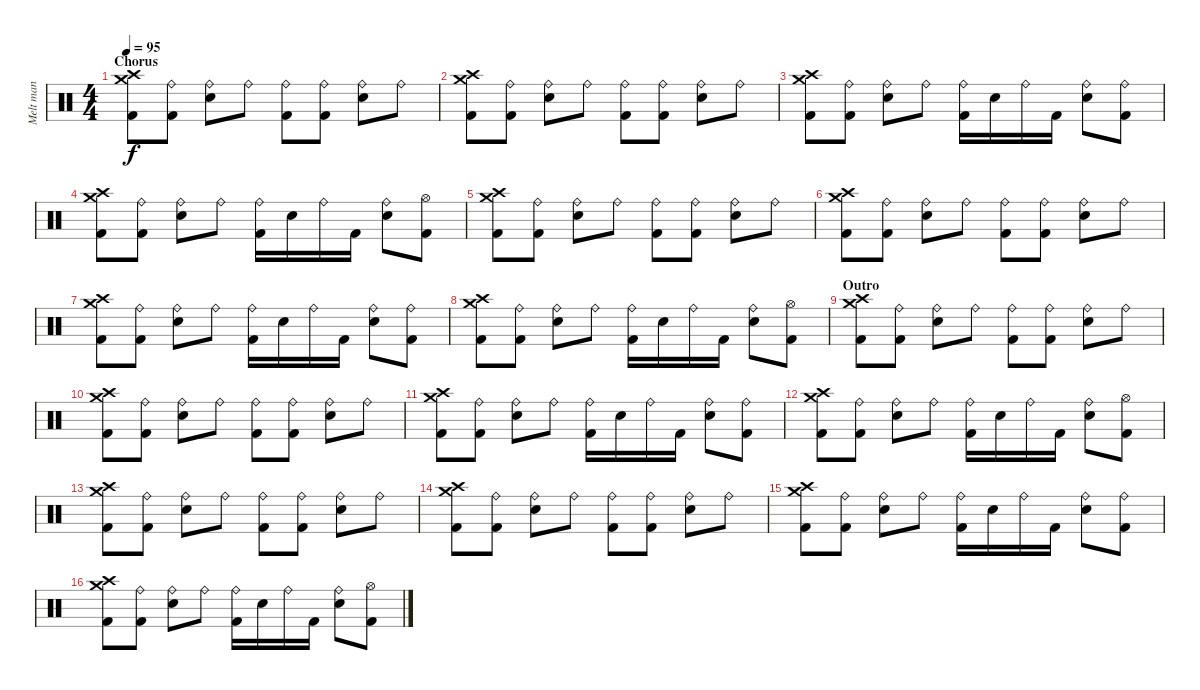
\track ("Melt man" "Melt man") {instrument percussion}
\staff {score}
\articulation defaults
\ts (4 4)
\section ("" "Chorus")
\tempo 95
\clef neutral
\ks c
("Crash medium (hit)" "Crash high (hit)" "Kick (hit) 2").8{dy f} ("Ride (bell)" "Kick (hit) 2").8 ("Ride (bell)" "Snare (hit) 2").8 "Ride (bell)".8 ("Ride (bell)" "Kick (hit) 2").8 ("Ride (bell)" "Kick (hit) 2").8 ("Ride (bell)" "Snare (hit) 2").8 "Ride (bell)".8 |
("Crash medium (hit)" "Crash high (hit)" "Kick (hit) 2").8 ("Ride (bell)" "Kick (hit) 2").8 ("Ride (bell)" "Snare (hit) 2").8 "Ride (bell)".8 ("Ride (bell)" "Kick (hit) 2").8 ("Ride (bell)" "Kick (hit) 2").8 ("Ride (bell)" "Snare (hit) 2").8 "Ride (bell)".8 |
("Crash medium (hit)" "Crash high (hit)" "Kick (hit) 2").8 ("Ride (bell)" "Kick (hit) 2").8 ("Ride (bell)" "Snare (hit) 2").8 "Ride (bell)".8 ("Ride (bell)" "Kick (hit) 2").16 "Snare (hit) 2".16 "Ride (bell)".16 "Kick (hit) 2".16 ("Ride (bell)" "Snare (hit) 2").8 ("Ride (bell)" "Kick (hit) 2").8 |
("Crash medium (hit)" "Crash high (hit)" "Kick (hit) 2").8 ("Ride (bell)" "Kick (hit) 2").8 ("Ride (bell)" "Snare (hit) 2").8 "Ride (bell)".8 ("Ride (bell)" "Kick (hit) 2").16 "Snare (hit) 2".16 "Ride (bell)".16 "Kick (hit) 2".16 ("Ride (bell)" "Snare (hit) 2").8 ("Hi-Hat (open)" "Kick (hit) 2").8 |
("Crash medium (hit)" "Crash high (hit)" "Kick (hit) 2").8 ("Ride (bell)" "Kick (hit) 2").8 ("Ride (bell)" "Snare (hit) 2").8 "Ride (bell)".8 ("Ride (bell)" "Kick (hit) 2").8 ("Ride (bell)" "Kick (hit) 2").8 ("Ride (bell)" "Snare (hit) 2").8 "Ride (bell)".8 |
("Crash medium (hit)" "Crash high (hit)" "Kick (hit) 2").8 ("Ride (bell)" "Kick (hit) 2").8 ("Ride (bell)" "Snare (hit) 2").8 "Ride (bell)".8 ("Ride (bell)" "Kick (hit) 2").8 ("Ride (bell)" "Kick (hit) 2").8 ("Ride (bell)" "Snare (hit) 2").8 "Ride (bell)".8 |
("Crash medium (hit)" "Crash high (hit)" "Kick (hit) 2").8 ("Ride (bell)" "Kick (hit) 2").8 ("Ride (bell)" "Snare (hit) 2").8 "Ride (bell)".8 ("Ride (bell)" "Kick (hit) 2").16 "Snare (hit) 2".16 "Ride (bell)".16 "Kick (hit) 2".16 ("Ride (bell)" "Snare (hit) 2").8 ("Ride (bell)" "Kick (hit) 2").8 |
("Crash medium (hit)" "Crash high (hit)" "Kick (hit) 2").8 ("Ride (bell)" "Kick (hit) 2").8 ("Ride (bell)" "Snare (hit) 2").8 "Ride (bell)".8 ("Ride (bell)" "Kick (hit) 2").16 "Snare (hit) 2".16 "Ride (bell)".16 "Kick (hit) 2".16 ("Ride (bell)" "Snare (hit) 2").8 ("Hi-Hat (open)" "Kick (hit) 2").8 |
\section ("" "Outro")
("Crash medium (hit)" "Crash high (hit)" "Kick (hit) 2").8 ("Ride (bell)" "Kick (hit) 2").8 ("Ride (bell)" "Snare (hit) 2").8 "Ride (bell)".8 ("Ride (bell)" "Kick (hit) 2").8 ("Ride (bell)" "Kick (hit) 2").8 ("Ride (bell)" "Snare (hit) 2").8 "Ride (bell)".8 |
("Crash medium (hit)" "Crash high (hit)" "Kick (hit) 2").8 ("Ride (bell)" "Kick (hit) 2").8 ("Ride (bell)" "Snare (hit) 2").8 "Ride (bell)".8 ("Ride (bell)" "Kick (hit) 2").8 ("Ride (bell)" "Kick (hit) 2").8 ("Ride (bell)" "Snare (hit) 2").8 "Ride (bell)".8 |
("Crash medium (hit)" "Crash high (hit)" "Kick (hit) 2").8 ("Ride (bell)" "Kick (hit) 2").8 ("Ride (bell)" "Snare (hit) 2").8 "Ride (bell)".8 ("Ride (bell)" "Kick (hit) 2").16 "Snare (hit) 2".16 "Ride (bell)".16 "Kick (hit) 2".16 ("Ride (bell)" "Snare (hit) 2").8 ("Ride (bell)" "Kick (hit) 2").8 |
("Crash medium (hit)" "Crash high (hit)" "Kick (hit) 2").8 ("Ride (bell)" "Kick (hit) 2").8 ("Ride (bell)" "Snare (hit) 2").8 "Ride (bell)".8 ("Ride (bell)" "Kick (hit) 2").16 "Snare (hit) 2".16 "Ride (bell)".16 "Kick (hit) 2".16 ("Ride (bell)" "Snare (hit) 2").8 ("Hi-Hat (open)" "Kick (hit) 2").8 |
("Crash medium (hit)" "Crash high (hit)" "Kick (hit) 2").8 ("Ride (bell)" "Kick (hit) 2").8 ("Ride (bell)" "Snare (hit) 2").8 "Ride (bell)".8 ("Ride (bell)" "Kick (hit) 2").8 ("Ride (bell)" "Kick (hit) 2").8 ("Ride (bell)" "Snare (hit) 2").8 "Ride (bell)".8 |
("Crash medium (hit)" "Crash high (hit)" "Kick (hit) 2").8 ("Ride (bell)" "Kick (hit) 2").8 ("Ride (bell)" "Snare (hit) 2").8 "Ride (bell)".8 ("Ride (bell)" "Kick (hit) 2").8 ("Ride (bell)" "Kick (hit) 2").8 ("Ride (bell)" "Snare (hit) 2").8 "Ride (bell)".8 |
("Crash medium (hit)" "Crash high (hit)" "Kick (hit) 2").8 ("Ride (bell)" "Kick (hit) 2").8 ("Ride (bell)" "Snare (hit) 2").8 "Ride (bell)".8 ("Ride (bell)" "Kick (hit) 2").16 "Snare (hit) 2".16 "Ride (bell)".16 "Kick (hit) 2".16 ("Ride (bell)" "Snare (hit) 2").8 ("Ride (bell)" "Kick (hit) 2").8 |
("Crash medium (hit)" "Crash high (hit)" "Kick (hit) 2").8 ("Ride (bell)" "Kick (hit) 2").8 ("Ride (bell)" "Snare (hit) 2").8 "Ride (bell)".8 ("Ride (bell)" "Kick (hit) 2").16 "Snare (hit) 2".16 "Ride (bell)".16 "Kick (hit) 2".16 ("Ride (bell)" "Snare (hit) 2").8 ("Hi-Hat (open)" "Kick (hit) 2").8
